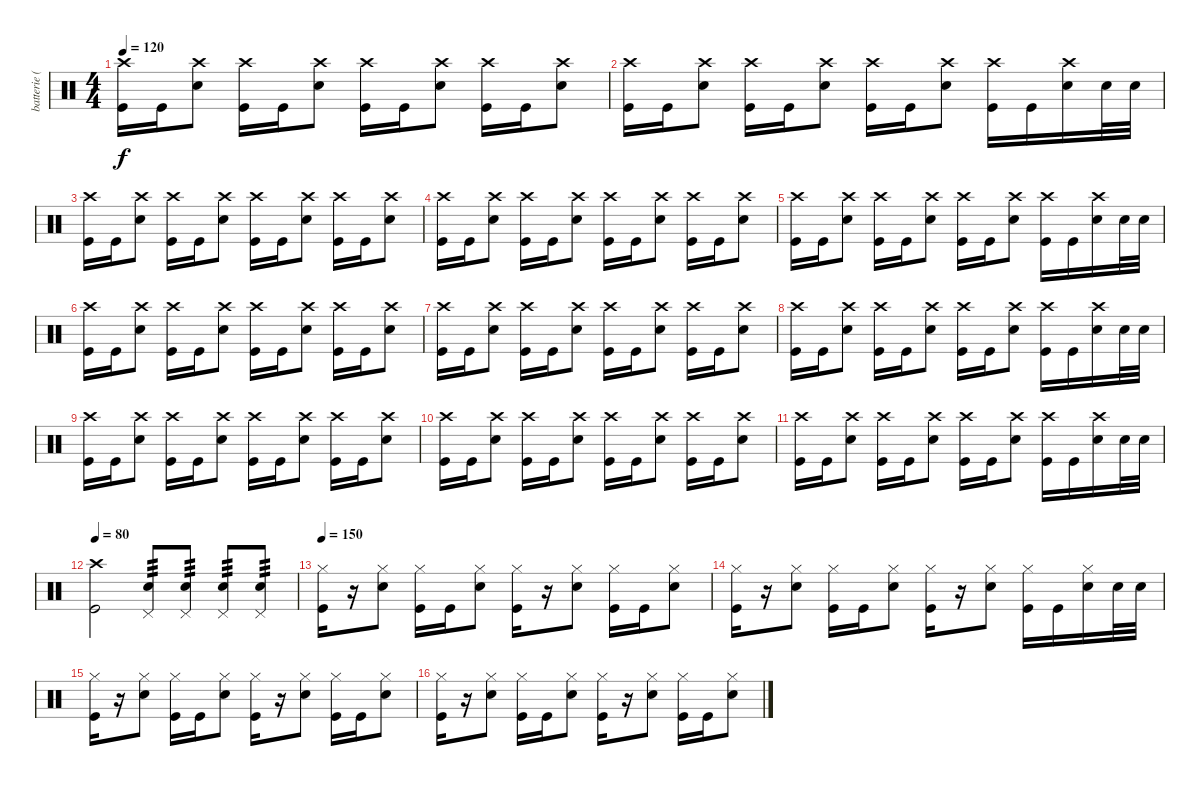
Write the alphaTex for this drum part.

\track ("batterie ( Yan ) " "batterie (") {instrument percussion}
\staff {score}
\articulation defaults
\ts (4 4)
\tempo 120
\clef neutral
\ks c
("Crash high (hit)" "Kick (hit)").16{dy f} "Kick (hit)".16 ("Crash high (hit)" "Snare (hit) 2").8 ("Crash high (hit)" "Kick (hit)").16 "Kick (hit)".16 ("Crash high (hit)" "Snare (hit) 2").8 ("Crash high (hit)" "Kick (hit)").16 "Kick (hit)".16 ("Crash high (hit)" "Snare (hit) 2").8 ("Crash high (hit)" "Kick (hit)").16 "Kick (hit)".16 ("Crash high (hit)" "Snare (hit) 2").8 |
("Crash high (hit)" "Kick (hit)").16 "Kick (hit)".16 ("Crash high (hit)" "Snare (hit) 2").8 ("Crash high (hit)" "Kick (hit)").16 "Kick (hit)".16 ("Crash high (hit)" "Snare (hit) 2").8 ("Crash high (hit)" "Kick (hit)").16 "Kick (hit)".16 ("Crash high (hit)" "Snare (hit) 2").8 ("Crash high (hit)" "Kick (hit)").16 "Kick (hit)".16 ("Crash high (hit)" "Snare (hit) 2").16 "Snare (hit) 2".32 "Snare (hit) 2".32 |
("Crash high (hit)" "Kick (hit)").16 "Kick (hit)".16 ("Crash high (hit)" "Snare (hit) 2").8 ("Crash high (hit)" "Kick (hit)").16 "Kick (hit)".16 ("Crash high (hit)" "Snare (hit) 2").8 ("Crash high (hit)" "Kick (hit)").16 "Kick (hit)".16 ("Crash high (hit)" "Snare (hit) 2").8 ("Crash high (hit)" "Kick (hit)").16 "Kick (hit)".16 ("Crash high (hit)" "Snare (hit) 2").8 |
("Crash high (hit)" "Kick (hit)").16 "Kick (hit)".16 ("Crash high (hit)" "Snare (hit) 2").8 ("Crash high (hit)" "Kick (hit)").16 "Kick (hit)".16 ("Crash high (hit)" "Snare (hit) 2").8 ("Crash high (hit)" "Kick (hit)").16 "Kick (hit)".16 ("Crash high (hit)" "Snare (hit) 2").8 ("Crash high (hit)" "Kick (hit)").16 "Kick (hit)".16 ("Crash high (hit)" "Snare (hit) 2").8 |
("Crash high (hit)" "Kick (hit)").16 "Kick (hit)".16 ("Crash high (hit)" "Snare (hit) 2").8 ("Crash high (hit)" "Kick (hit)").16 "Kick (hit)".16 ("Crash high (hit)" "Snare (hit) 2").8 ("Crash high (hit)" "Kick (hit)").16 "Kick (hit)".16 ("Crash high (hit)" "Snare (hit) 2").8 ("Crash high (hit)" "Kick (hit)").16 "Kick (hit)".16 ("Crash high (hit)" "Snare (hit) 2").16 "Snare (hit) 2".32 "Snare (hit) 2".32 |
("Crash high (hit)" "Kick (hit)").16 "Kick (hit)".16 ("Crash high (hit)" "Snare (hit) 2").8 ("Crash high (hit)" "Kick (hit)").16 "Kick (hit)".16 ("Crash high (hit)" "Snare (hit) 2").8 ("Crash high (hit)" "Kick (hit)").16 "Kick (hit)".16 ("Crash high (hit)" "Snare (hit) 2").8 ("Crash high (hit)" "Kick (hit)").16 "Kick (hit)".16 ("Crash high (hit)" "Snare (hit) 2").8 |
("Crash high (hit)" "Kick (hit)").16 "Kick (hit)".16 ("Crash high (hit)" "Snare (hit) 2").8 ("Crash high (hit)" "Kick (hit)").16 "Kick (hit)".16 ("Crash high (hit)" "Snare (hit) 2").8 ("Crash high (hit)" "Kick (hit)").16 "Kick (hit)".16 ("Crash high (hit)" "Snare (hit) 2").8 ("Crash high (hit)" "Kick (hit)").16 "Kick (hit)".16 ("Crash high (hit)" "Snare (hit) 2").8 |
("Crash high (hit)" "Kick (hit)").16 "Kick (hit)".16 ("Crash high (hit)" "Snare (hit) 2").8 ("Crash high (hit)" "Kick (hit)").16 "Kick (hit)".16 ("Crash high (hit)" "Snare (hit) 2").8 ("Crash high (hit)" "Kick (hit)").16 "Kick (hit)".16 ("Crash high (hit)" "Snare (hit) 2").8 ("Crash high (hit)" "Kick (hit)").16 "Kick (hit)".16 ("Crash high (hit)" "Snare (hit) 2").16 "Snare (hit) 2".32 "Snare (hit) 2".32 |
("Crash high (hit)" "Kick (hit)").16 "Kick (hit)".16 ("Crash high (hit)" "Snare (hit) 2").8 ("Crash high (hit)" "Kick (hit)").16 "Kick (hit)".16 ("Crash high (hit)" "Snare (hit) 2").8 ("Crash high (hit)" "Kick (hit)").16 "Kick (hit)".16 ("Crash high (hit)" "Snare (hit) 2").8 ("Crash high (hit)" "Kick (hit)").16 "Kick (hit)".16 ("Crash high (hit)" "Snare (hit) 2").8 |
("Crash high (hit)" "Kick (hit)").16 "Kick (hit)".16 ("Crash high (hit)" "Snare (hit) 2").8 ("Crash high (hit)" "Kick (hit)").16 "Kick (hit)".16 ("Crash high (hit)" "Snare (hit) 2").8 ("Crash high (hit)" "Kick (hit)").16 "Kick (hit)".16 ("Crash high (hit)" "Snare (hit) 2").8 ("Crash high (hit)" "Kick (hit)").16 "Kick (hit)".16 ("Crash high (hit)" "Snare (hit) 2").8 |
("Crash high (hit)" "Kick (hit)").16 "Kick (hit)".16 ("Crash high (hit)" "Snare (hit) 2").8 ("Crash high (hit)" "Kick (hit)").16 "Kick (hit)".16 ("Crash high (hit)" "Snare (hit) 2").8 ("Crash high (hit)" "Kick (hit)").16 "Kick (hit)".16 ("Crash high (hit)" "Snare (hit) 2").8 ("Crash high (hit)" "Kick (hit)").16 "Kick (hit)".16 ("Crash high (hit)" "Snare (hit) 2").16 "Snare (hit) 2".32 "Snare (hit) 2".32 |
\tempo 80
("Crash high (hit)" "Kick (hit)").2 ("Pedal Hi-Hat (hit)" "Snare (hit) 2").8{tp 3} ("Pedal Hi-Hat (hit)" "Snare (hit) 2").8{tp 3} ("Pedal Hi-Hat (hit)" "Snare (hit) 2").8{tp 3} ("Pedal Hi-Hat (hit)" "Snare (hit) 2").8{tp 3} |
\tempo 150
("Hi-Hat (closed)" "Kick (hit)").16 r.16 ("Hi-Hat (closed)" "Snare (hit) 2").8 ("Hi-Hat (closed)" "Kick (hit)").16 "Kick (hit)".16 ("Hi-Hat (closed)" "Snare (hit) 2").8 ("Hi-Hat (closed)" "Kick (hit)").16 r.16 ("Hi-Hat (closed)" "Snare (hit) 2").8 ("Hi-Hat (closed)" "Kick (hit)").16 "Kick (hit)".16 ("Hi-Hat (closed)" "Snare (hit) 2").8 |
("Hi-Hat (closed)" "Kick (hit)").16 r.16 ("Hi-Hat (closed)" "Snare (hit) 2").8 ("Hi-Hat (closed)" "Kick (hit)").16 "Kick (hit)".16 ("Hi-Hat (closed)" "Snare (hit) 2").8 ("Hi-Hat (closed)" "Kick (hit)").16 r.16 ("Hi-Hat (closed)" "Snare (hit) 2").8 ("Hi-Hat (closed)" "Kick (hit)").16 "Kick (hit)".16 ("Hi-Hat (closed)" "Snare (hit) 2").16 "Snare (hit) 2".32 "Snare (hit) 2".32 |
("Hi-Hat (closed)" "Kick (hit)").16 r.16 ("Hi-Hat (closed)" "Snare (hit) 2").8 ("Hi-Hat (closed)" "Kick (hit)").16 "Kick (hit)".16 ("Hi-Hat (closed)" "Snare (hit) 2").8 ("Hi-Hat (closed)" "Kick (hit)").16 r.16 ("Hi-Hat (closed)" "Snare (hit) 2").8 ("Hi-Hat (closed)" "Kick (hit)").16 "Kick (hit)".16 ("Hi-Hat (closed)" "Snare (hit) 2").8 |
("Hi-Hat (closed)" "Kick (hit)").16 r.16 ("Hi-Hat (closed)" "Snare (hit) 2").8 ("Hi-Hat (closed)" "Kick (hit)").16 "Kick (hit)".16 ("Hi-Hat (closed)" "Snare (hit) 2").8 ("Hi-Hat (closed)" "Kick (hit)").16 r.16 ("Hi-Hat (closed)" "Snare (hit) 2").8 ("Hi-Hat (closed)" "Kick (hit)").16 "Kick (hit)".16 ("Hi-Hat (closed)" "Snare (hit) 2").8
